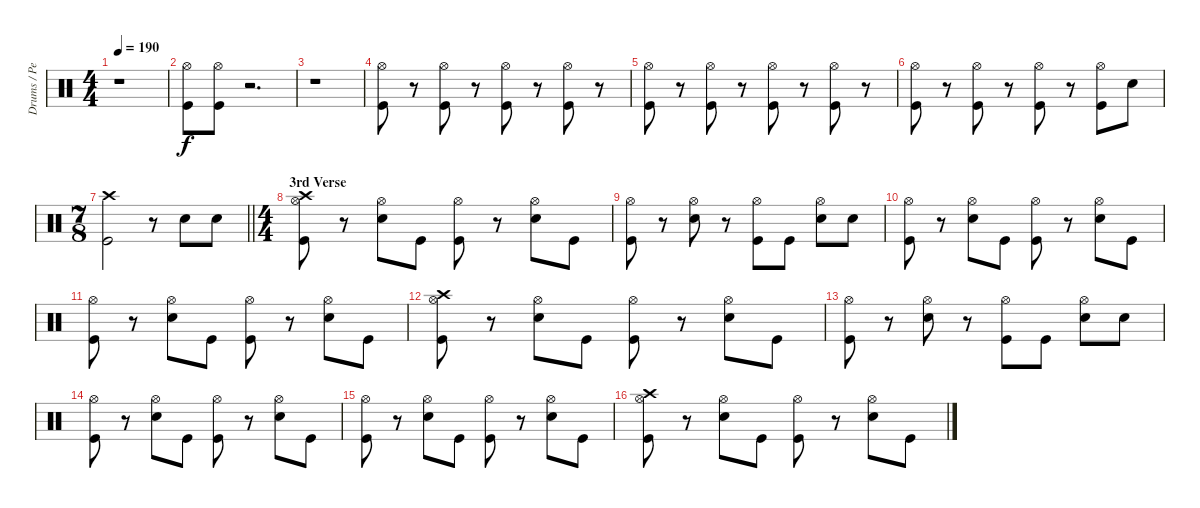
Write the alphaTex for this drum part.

\track ("Drums / Percussion" "Drums / Pe") {instrument percussion}
\staff {score}
\articulation defaults
\ts (4 4)
\tempo 190
\clef neutral
\ks c
r.1{dy f} |
("Hi-Hat (open)" "Kick (hit)").8 ("Hi-Hat (open)" "Kick (hit)").8 r.2{d} |
r.1 |
("Hi-Hat (open)" "Kick (hit)").8 r.8 ("Hi-Hat (open)" "Kick (hit)").8 r.8 ("Hi-Hat (open)" "Kick (hit)").8 r.8 ("Hi-Hat (open)" "Kick (hit)").8 r.8 |
("Hi-Hat (open)" "Kick (hit)").8 r.8 ("Hi-Hat (open)" "Kick (hit)").8 r.8 ("Hi-Hat (open)" "Kick (hit)").8 r.8 ("Hi-Hat (open)" "Kick (hit)").8 r.8 |
("Hi-Hat (open)" "Kick (hit)").8 r.8 ("Hi-Hat (open)" "Kick (hit)").8 r.8 ("Hi-Hat (open)" "Kick (hit)").8 r.8 ("Hi-Hat (open)" "Kick (hit)").8 "Electric Snare (hit)".8 |
\ts (7 8)
\barLineRight lightlight
("Crash high (hit)" "Kick (hit)").2 r.8 "Electric Snare (hit)".8 "Electric Snare (hit)".8 |
\ts (4 4)
\section ("" "3rd Verse")
("Hi-Hat (open)" "Crash high (hit)" "Kick (hit)").8 r.8 ("Hi-Hat (open)" "Electric Snare (hit)").8 "Kick (hit)".8 ("Hi-Hat (open)" "Kick (hit)").8 r.8 ("Hi-Hat (open)" "Electric Snare (hit)").8 "Kick (hit)".8 |
("Hi-Hat (open)" "Kick (hit)").8 r.8 ("Hi-Hat (open)" "Electric Snare (hit)").8 r.8 ("Hi-Hat (open)" "Kick (hit)").8 "Kick (hit)".8 ("Hi-Hat (open)" "Electric Snare (hit)").8 "Electric Snare (hit)".8 |
("Hi-Hat (open)" "Kick (hit)").8 r.8 ("Hi-Hat (open)" "Electric Snare (hit)").8 "Kick (hit)".8 ("Hi-Hat (open)" "Kick (hit)").8 r.8 ("Hi-Hat (open)" "Electric Snare (hit)").8 "Kick (hit)".8 |
("Hi-Hat (open)" "Kick (hit)").8 r.8 ("Hi-Hat (open)" "Electric Snare (hit)").8 "Kick (hit)".8 ("Hi-Hat (open)" "Kick (hit)").8 r.8 ("Hi-Hat (open)" "Electric Snare (hit)").8 "Kick (hit)".8 |
("Hi-Hat (open)" "Crash high (hit)" "Kick (hit)").8 r.8 ("Hi-Hat (open)" "Electric Snare (hit)").8 "Kick (hit)".8 ("Hi-Hat (open)" "Kick (hit)").8 r.8 ("Hi-Hat (open)" "Electric Snare (hit)").8 "Kick (hit)".8 |
("Hi-Hat (open)" "Kick (hit)").8 r.8 ("Hi-Hat (open)" "Electric Snare (hit)").8 r.8 ("Hi-Hat (open)" "Kick (hit)").8 "Kick (hit)".8 ("Hi-Hat (open)" "Electric Snare (hit)").8 "Electric Snare (hit)".8 |
("Hi-Hat (open)" "Kick (hit)").8 r.8 ("Hi-Hat (open)" "Electric Snare (hit)").8 "Kick (hit)".8 ("Hi-Hat (open)" "Kick (hit)").8 r.8 ("Hi-Hat (open)" "Electric Snare (hit)").8 "Kick (hit)".8 |
("Hi-Hat (open)" "Kick (hit)").8 r.8 ("Hi-Hat (open)" "Electric Snare (hit)").8 "Kick (hit)".8 ("Hi-Hat (open)" "Kick (hit)").8 r.8 ("Hi-Hat (open)" "Electric Snare (hit)").8 "Kick (hit)".8 |
("Hi-Hat (open)" "Crash high (hit)" "Kick (hit)").8 r.8 ("Hi-Hat (open)" "Electric Snare (hit)").8 "Kick (hit)".8 ("Hi-Hat (open)" "Kick (hit)").8 r.8 ("Hi-Hat (open)" "Electric Snare (hit)").8 "Kick (hit)".8
